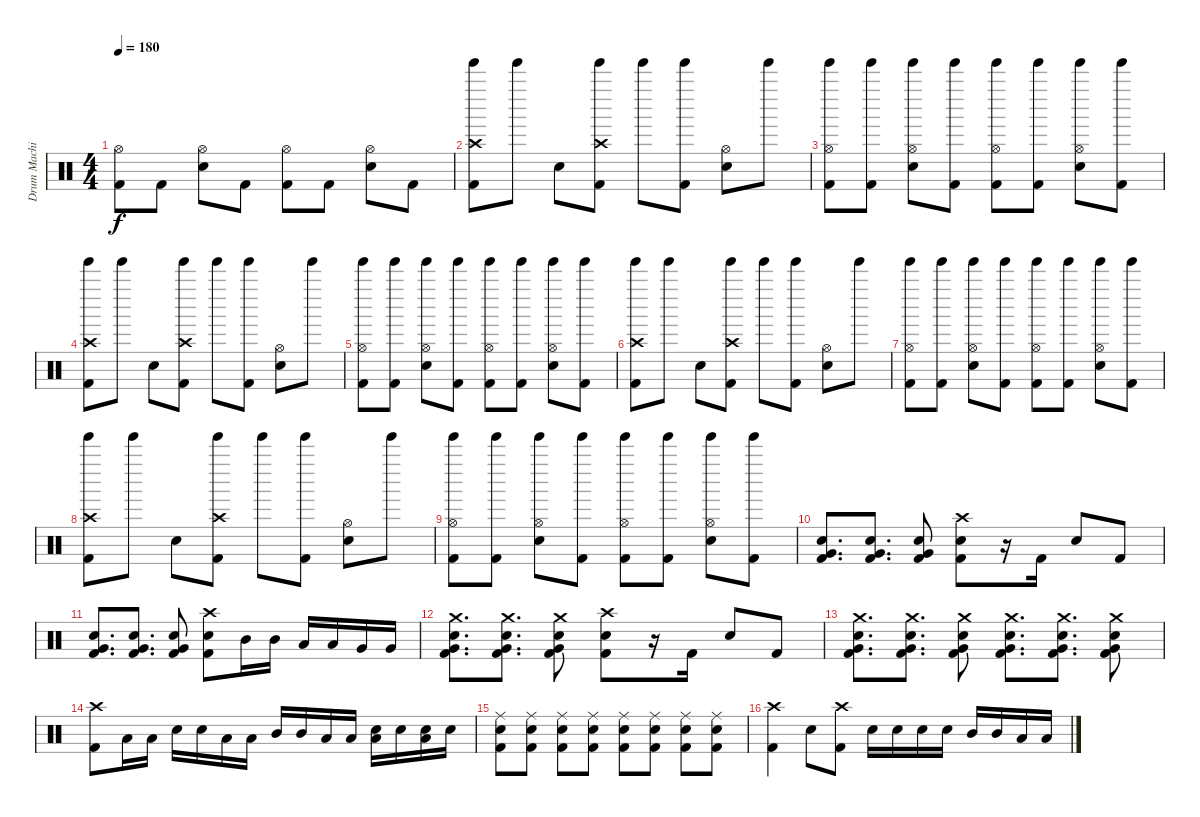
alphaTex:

\track ("Drum Machine" "Drum Machi") {instrument percussion}
\staff {score}
\articulation defaults
\ts (4 4)
\tempo 180
\clef neutral
\ks c
("Hi-Hat (open)" "Kick (hit) 2").8{dy f} "Kick (hit) 2".8 ("Hi-Hat (open)" "Snare (hit) 2").8 "Kick (hit) 2".8 ("Hi-Hat (open)" "Kick (hit) 2").8 "Kick (hit) 2".8 ("Hi-Hat (open)" "Snare (hit) 2").8 "Kick (hit) 2".8 |
("Tinkle Bell (hit)" "Crash high (hit)" "Kick (hit) 2").8 "Tinkle Bell (hit)".8 "Snare (hit) 2".8 ("Tinkle Bell (hit)" "Crash high (hit)" "Kick (hit) 2").8 "Tinkle Bell (hit)".8 ("Tinkle Bell (hit)" "Kick (hit) 2").8 ("Hi-Hat (open)" "Snare (hit) 2").8 "Tinkle Bell (hit)".8 |
("Tinkle Bell (hit)" "Hi-Hat (open)" "Kick (hit) 2").8 ("Tinkle Bell (hit)" "Kick (hit) 2").8 ("Tinkle Bell (hit)" "Hi-Hat (open)" "Snare (hit) 2").8 ("Tinkle Bell (hit)" "Kick (hit) 2").8 ("Tinkle Bell (hit)" "Hi-Hat (open)" "Kick (hit) 2").8 ("Tinkle Bell (hit)" "Kick (hit) 2").8 ("Tinkle Bell (hit)" "Hi-Hat (open)" "Snare (hit) 2").8 ("Tinkle Bell (hit)" "Kick (hit) 2").8 |
("Tinkle Bell (hit)" "Crash high (hit)" "Kick (hit) 2").8 "Tinkle Bell (hit)".8 "Snare (hit) 2".8 ("Tinkle Bell (hit)" "Crash high (hit)" "Kick (hit) 2").8 "Tinkle Bell (hit)".8 ("Tinkle Bell (hit)" "Kick (hit) 2").8 ("Hi-Hat (open)" "Snare (hit) 2").8 "Tinkle Bell (hit)".8 |
("Tinkle Bell (hit)" "Hi-Hat (open)" "Kick (hit) 2").8 ("Tinkle Bell (hit)" "Kick (hit) 2").8 ("Tinkle Bell (hit)" "Hi-Hat (open)" "Snare (hit) 2").8 ("Tinkle Bell (hit)" "Kick (hit) 2").8 ("Tinkle Bell (hit)" "Hi-Hat (open)" "Kick (hit) 2").8 ("Tinkle Bell (hit)" "Kick (hit) 2").8 ("Tinkle Bell (hit)" "Hi-Hat (open)" "Snare (hit) 2").8 ("Tinkle Bell (hit)" "Kick (hit) 2").8 |
("Tinkle Bell (hit)" "Crash high (hit)" "Kick (hit) 2").8 "Tinkle Bell (hit)".8 "Snare (hit) 2".8 ("Tinkle Bell (hit)" "Crash high (hit)" "Kick (hit) 2").8 "Tinkle Bell (hit)".8 ("Tinkle Bell (hit)" "Kick (hit) 2").8 ("Hi-Hat (open)" "Snare (hit) 2").8 "Tinkle Bell (hit)".8 |
("Tinkle Bell (hit)" "Hi-Hat (open)" "Kick (hit) 2").8 ("Tinkle Bell (hit)" "Kick (hit) 2").8 ("Tinkle Bell (hit)" "Hi-Hat (open)" "Snare (hit) 2").8 ("Tinkle Bell (hit)" "Kick (hit) 2").8 ("Tinkle Bell (hit)" "Hi-Hat (open)" "Kick (hit) 2").8 ("Tinkle Bell (hit)" "Kick (hit) 2").8 ("Tinkle Bell (hit)" "Hi-Hat (open)" "Snare (hit) 2").8 ("Tinkle Bell (hit)" "Kick (hit) 2").8 |
("Tinkle Bell (hit)" "Crash high (hit)" "Kick (hit) 2").8 "Tinkle Bell (hit)".8 "Snare (hit) 2".8 ("Tinkle Bell (hit)" "Crash high (hit)" "Kick (hit) 2").8 "Tinkle Bell (hit)".8 ("Tinkle Bell (hit)" "Kick (hit) 2").8 ("Hi-Hat (open)" "Snare (hit) 2").8 "Tinkle Bell (hit)".8 |
("Tinkle Bell (hit)" "Hi-Hat (open)" "Kick (hit) 2").8 ("Tinkle Bell (hit)" "Kick (hit) 2").8 ("Tinkle Bell (hit)" "Hi-Hat (open)" "Snare (hit) 2").8 ("Tinkle Bell (hit)" "Kick (hit) 2").8 ("Tinkle Bell (hit)" "Hi-Hat (open)" "Kick (hit) 2").8 ("Tinkle Bell (hit)" "Kick (hit) 2").8 ("Tinkle Bell (hit)" "Hi-Hat (open)" "Snare (hit) 2").8 ("Tinkle Bell (hit)" "Kick (hit) 2").8 |
("Very Low Tom (hit)" "Snare (hit) 2" "Kick (hit) 2").8{d} ("Very Low Tom (hit)" "Snare (hit) 2" "Kick (hit) 2").8{d} ("Very Low Tom (hit)" "Snare (hit) 2" "Kick (hit) 2").8 ("Crash high (hit)" "Snare (hit) 2" "Kick (hit) 2").8 r.16 "Kick (hit) 2".16 "Snare (hit) 2".8 "Kick (hit) 2".8 |
("Very Low Tom (hit)" "Snare (hit) 2" "Kick (hit) 2").8{d} ("Very Low Tom (hit)" "Snare (hit) 2" "Kick (hit) 2").8{d} ("Very Low Tom (hit)" "Snare (hit) 2" "Kick (hit) 2").8 ("Crash high (hit)" "Snare (hit) 2" "Kick (hit) 2").8 "Mid Tom (hit)".16 "Mid Tom (hit)".16 "Low Tom (hit)".16 "Low Tom (hit)".16 "Very Low Tom (hit)".16 "Very Low Tom (hit)".16 |
("Crash medium (hit)" "Very Low Tom (hit)" "Snare (hit) 2" "Kick (hit) 2").8{d} ("Crash medium (hit)" "Very Low Tom (hit)" "Snare (hit) 2" "Kick (hit) 2").8{d} ("Crash medium (hit)" "Very Low Tom (hit)" "Snare (hit) 2" "Kick (hit) 2").8 ("Crash high (hit)" "Snare (hit) 2" "Kick (hit) 2").8 r.16 "Kick (hit) 2".16 "Snare (hit) 2".8 "Kick (hit) 2".8 |
("Crash medium (hit)" "Very Low Tom (hit)" "Snare (hit) 2" "Kick (hit) 2").8{d} ("Crash medium (hit)" "Very Low Tom (hit)" "Snare (hit) 2" "Kick (hit) 2").8{d} ("Crash medium (hit)" "Very Low Tom (hit)" "Snare (hit) 2" "Kick (hit) 2").8 ("Crash medium (hit)" "Very Low Tom (hit)" "Snare (hit) 2" "Kick (hit) 2").8{d} ("Crash medium (hit)" "Very Low Tom (hit)" "Snare (hit) 2" "Kick (hit) 2").8{d} ("Crash medium (hit)" "Very Low Tom (hit)" "Snare (hit) 2" "Kick (hit) 2").8 |
("Crash high (hit)" "Kick (hit) 2").8 "Low Tom (hit)".16 "Low Tom (hit)".16 "Snare (hit) 2".16 "Snare (hit) 2".16 "Low Tom (hit)".16 "Low Tom (hit)".16 "Mid Tom (hit)".16 "Mid Tom (hit)".16 "Low Tom (hit)".16 "Low Tom (hit)".16 ("Low Tom (hit)" "Snare (hit) 2").16 "Snare (hit) 2".16 ("Low Tom (hit)" "Snare (hit) 2").16 "Snare (hit) 2".16 |
("Ride (middle)" "Snare (hit) 2" "Kick (hit) 2").8 ("Ride (middle)" "Snare (hit) 2" "Kick (hit) 2").8 ("Ride (middle)" "Snare (hit) 2" "Kick (hit) 2").8 ("Ride (middle)" "Snare (hit) 2" "Kick (hit) 2").8 ("Ride (middle)" "Snare (hit) 2" "Kick (hit) 2").8 ("Ride (middle)" "Snare (hit) 2" "Kick (hit) 2").8 ("Ride (middle)" "Snare (hit) 2" "Kick (hit) 2").8 ("Ride (middle)" "Snare (hit) 2" "Kick (hit) 2").8 |
("Crash high (hit)" "Kick (hit) 2").4 "Snare (hit) 2".8 ("Crash high (hit)" "Kick (hit) 2").8 "Snare (hit) 2".16 "Snare (hit) 2".16 "Snare (hit) 2".16 "Snare (hit) 2".16 "Mid Tom (hit)".16 "Mid Tom (hit)".16 "Low Tom (hit)".16 "Low Tom (hit)".16
